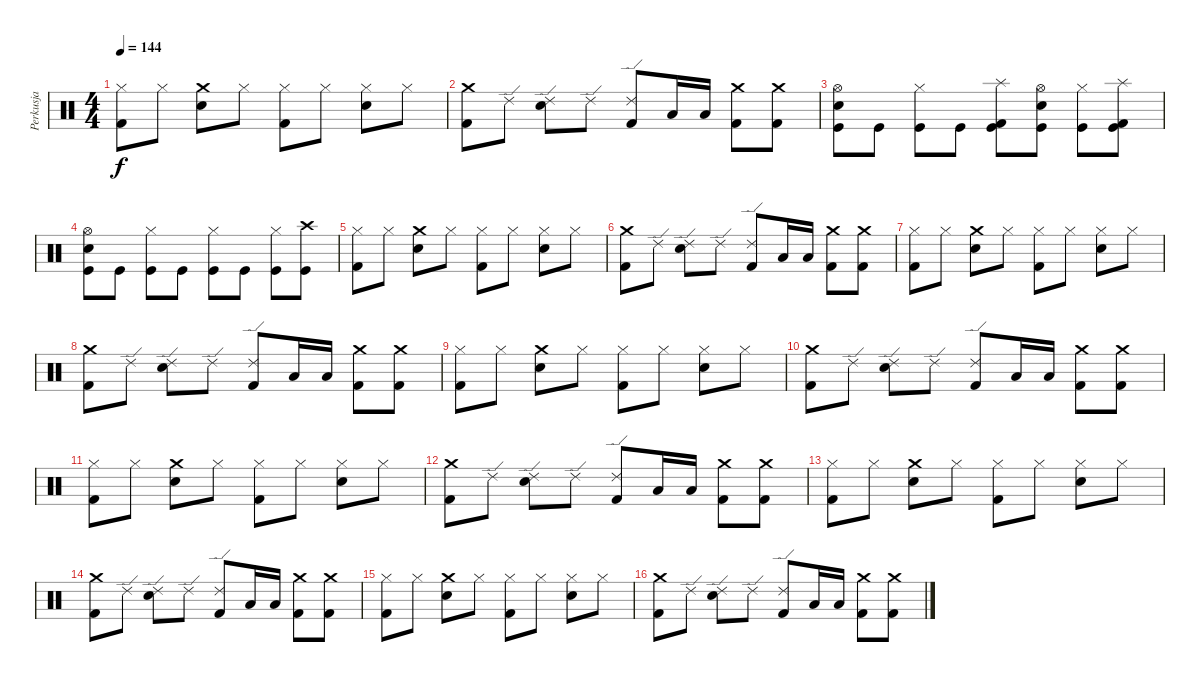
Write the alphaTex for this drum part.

\track ("Perkusja" "Perkusja") {instrument percussion}
\staff {score}
\articulation defaults
\ts (4 4)
\tempo 144
\clef neutral
\ks c
("Hi-Hat (closed)" "Kick (hit) 2").8{dy f} "Hi-Hat (closed)".8 ("Crash medium (hit)" "Snare (hit) 2").8 "Hi-Hat (closed)".8 ("Hi-Hat (closed)" "Kick (hit) 2").8 "Hi-Hat (closed)".8 ("Snare (hit) 2" "Hi-Hat (closed)").8 "Hi-Hat (closed)".8 |
("Crash medium (hit)" "Kick (hit) 2").8 "Ride (edge) 2".8 ("Snare (hit) 2" "Ride (edge) 2").8 "Ride (edge) 2".8 ("Ride (edge) 2" "Kick (hit) 2").8 "Low Tom (hit)".16 "Low Tom (hit)".16 ("Crash medium (hit)" "Kick (hit) 2").8 ("Crash medium (hit)" "Kick (hit) 2").8 |
("Kick (hit)" "Snare (hit) 2" "Hi-Hat (open)").8 "Kick (hit)".8 ("Kick (hit)" "Hi-Hat (closed)").8 "Kick (hit)".8 ("Kick (hit)" "Splash (hit)" "Kick (hit) 2").8 ("Kick (hit)" "Hi-Hat (open)" "Snare (hit) 2").8 ("Kick (hit)" "Hi-Hat (closed)").8 ("Kick (hit)" "Splash (hit)" "Kick (hit) 2").8 |
("Kick (hit)" "Snare (hit) 2" "Hi-Hat (open)").8 "Kick (hit)".8 ("Kick (hit)" "Hi-Hat (closed)").8 "Kick (hit)".8 ("Kick (hit)" "Hi-Hat (closed)").8 "Kick (hit)".8 ("Kick (hit)" "Hi-Hat (closed)").8 ("Kick (hit)" "Crash high (hit)").8 |
("Hi-Hat (closed)" "Kick (hit) 2").8 "Hi-Hat (closed)".8 ("Crash medium (hit)" "Snare (hit) 2").8 "Hi-Hat (closed)".8 ("Hi-Hat (closed)" "Kick (hit) 2").8 "Hi-Hat (closed)".8 ("Snare (hit) 2" "Hi-Hat (closed)").8 "Hi-Hat (closed)".8 |
("Crash medium (hit)" "Kick (hit) 2").8 "Ride (edge) 2".8 ("Snare (hit) 2" "Ride (edge) 2").8 "Ride (edge) 2".8 ("Ride (edge) 2" "Kick (hit) 2").8 "Low Tom (hit)".16 "Low Tom (hit)".16 ("Crash medium (hit)" "Kick (hit) 2").8 ("Crash medium (hit)" "Kick (hit) 2").8 |
("Hi-Hat (closed)" "Kick (hit) 2").8 "Hi-Hat (closed)".8 ("Crash medium (hit)" "Snare (hit) 2").8 "Hi-Hat (closed)".8 ("Hi-Hat (closed)" "Kick (hit) 2").8 "Hi-Hat (closed)".8 ("Snare (hit) 2" "Hi-Hat (closed)").8 "Hi-Hat (closed)".8 |
("Crash medium (hit)" "Kick (hit) 2").8 "Ride (edge) 2".8 ("Snare (hit) 2" "Ride (edge) 2").8 "Ride (edge) 2".8 ("Ride (edge) 2" "Kick (hit) 2").8 "Low Tom (hit)".16 "Low Tom (hit)".16 ("Crash medium (hit)" "Kick (hit) 2").8 ("Crash medium (hit)" "Kick (hit) 2").8 |
("Hi-Hat (closed)" "Kick (hit) 2").8 "Hi-Hat (closed)".8 ("Crash medium (hit)" "Snare (hit) 2").8 "Hi-Hat (closed)".8 ("Hi-Hat (closed)" "Kick (hit) 2").8 "Hi-Hat (closed)".8 ("Snare (hit) 2" "Hi-Hat (closed)").8 "Hi-Hat (closed)".8 |
("Crash medium (hit)" "Kick (hit) 2").8 "Ride (edge) 2".8 ("Snare (hit) 2" "Ride (edge) 2").8 "Ride (edge) 2".8 ("Ride (edge) 2" "Kick (hit) 2").8 "Low Tom (hit)".16 "Low Tom (hit)".16 ("Crash medium (hit)" "Kick (hit) 2").8 ("Crash medium (hit)" "Kick (hit) 2").8 |
("Hi-Hat (closed)" "Kick (hit) 2").8 "Hi-Hat (closed)".8 ("Crash medium (hit)" "Snare (hit) 2").8 "Hi-Hat (closed)".8 ("Hi-Hat (closed)" "Kick (hit) 2").8 "Hi-Hat (closed)".8 ("Snare (hit) 2" "Hi-Hat (closed)").8 "Hi-Hat (closed)".8 |
("Crash medium (hit)" "Kick (hit) 2").8 "Ride (edge) 2".8 ("Snare (hit) 2" "Ride (edge) 2").8 "Ride (edge) 2".8 ("Ride (edge) 2" "Kick (hit) 2").8 "Low Tom (hit)".16 "Low Tom (hit)".16 ("Crash medium (hit)" "Kick (hit) 2").8 ("Crash medium (hit)" "Kick (hit) 2").8 |
("Hi-Hat (closed)" "Kick (hit) 2").8 "Hi-Hat (closed)".8 ("Crash medium (hit)" "Snare (hit) 2").8 "Hi-Hat (closed)".8 ("Hi-Hat (closed)" "Kick (hit) 2").8 "Hi-Hat (closed)".8 ("Snare (hit) 2" "Hi-Hat (closed)").8 "Hi-Hat (closed)".8 |
("Crash medium (hit)" "Kick (hit) 2").8 "Ride (edge) 2".8 ("Snare (hit) 2" "Ride (edge) 2").8 "Ride (edge) 2".8 ("Ride (edge) 2" "Kick (hit) 2").8 "Low Tom (hit)".16 "Low Tom (hit)".16 ("Crash medium (hit)" "Kick (hit) 2").8 ("Crash medium (hit)" "Kick (hit) 2").8 |
("Hi-Hat (closed)" "Kick (hit) 2").8 "Hi-Hat (closed)".8 ("Crash medium (hit)" "Snare (hit) 2").8 "Hi-Hat (closed)".8 ("Hi-Hat (closed)" "Kick (hit) 2").8 "Hi-Hat (closed)".8 ("Snare (hit) 2" "Hi-Hat (closed)").8 "Hi-Hat (closed)".8 |
("Crash medium (hit)" "Kick (hit) 2").8 "Ride (edge) 2".8 ("Snare (hit) 2" "Ride (edge) 2").8 "Ride (edge) 2".8 ("Ride (edge) 2" "Kick (hit) 2").8 "Low Tom (hit)".16 "Low Tom (hit)".16 ("Crash medium (hit)" "Kick (hit) 2").8 ("Crash medium (hit)" "Kick (hit) 2").8
